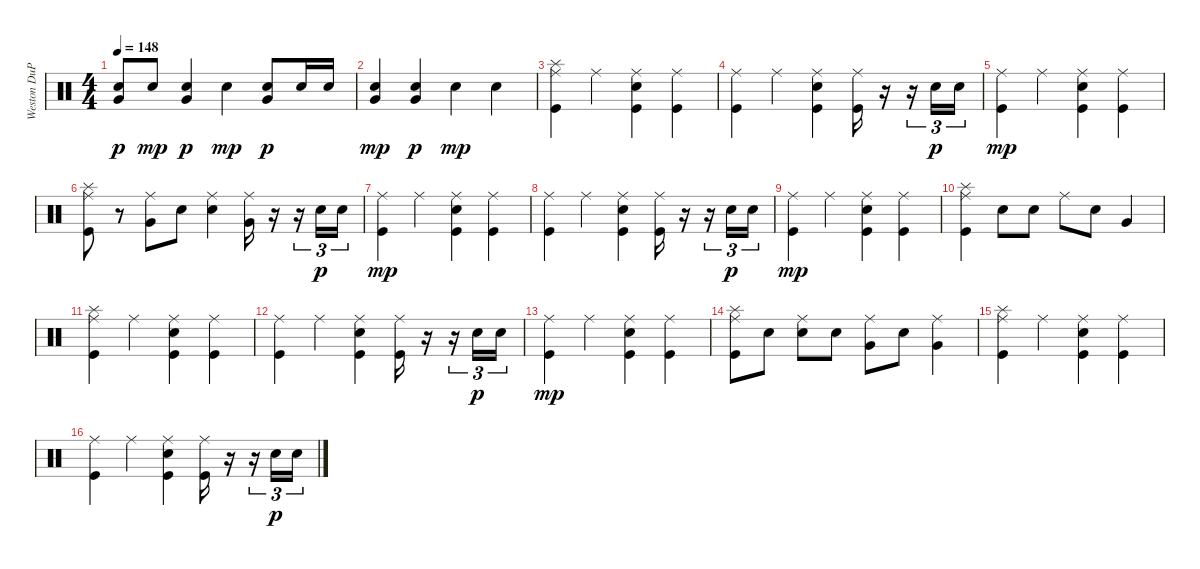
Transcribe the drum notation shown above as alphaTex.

\track ("Weston DuPree" "Weston DuP") {instrument percussion}
\staff {score}
\articulation defaults
\ts (4 4)
\tempo 148
\clef neutral
\ks c
("Snare (hit) 2" "Very Low Tom (hit)").8{dy p} "Electric Snare (hit)".8{dy mp} ("Snare (hit) 2" "Very Low Tom (hit)").4{dy p} "Electric Snare (hit)".4{dy mp} ("Snare (hit) 2" "Very Low Tom (hit)").8{dy p} "Snare (hit) 2".16 "Snare (hit) 2".16 |
("Snare (hit) 2" "Very Low Tom (hit)").4{dy mp} ("Snare (hit) 2" "Very Low Tom (hit)").4{dy p} "Electric Snare (hit)".4{dy mp} "Electric Snare (hit)".4 |
("Splash (hit)" "Kick (hit)" "Ride (middle)").4{volume 16} "Ride (middle)".4 ("Electric Snare (hit)" "Kick (hit)" "Ride (middle)").4 ("Ride (middle)" "Kick (hit)").4 |
("Ride (middle)" "Kick (hit)").4 "Ride (middle)".4 ("Ride (middle)" "Kick (hit)" "Electric Snare (hit)").4 ("Ride (middle)" "Kick (hit)").16 r.16 r.16{tu (3 2)} "Snare (hit) 2".16{tu (3 2) dy p} "Snare (hit) 2".16{tu (3 2)} |
("Kick (hit)" "Ride (middle)").4{dy mp} "Ride (middle)".4 ("Electric Snare (hit)" "Kick (hit)" "Ride (middle)").4 ("Ride (middle)" "Kick (hit)").4 |
("Splash (hit)" "Kick (hit)" "Ride (middle)").8 r.8 ("Ride (middle)" "Very Low Tom (hit)").8 "Electric Snare (hit)".8 ("Ride (middle)" "Electric Snare (hit)").4 ("Ride (middle)" "Very Low Tom (hit)").16 r.16 r.16{tu (3 2)} "Snare (hit) 2".16{tu (3 2) dy p} "Snare (hit) 2".16{tu (3 2)} |
("Kick (hit)" "Ride (middle)").4{dy mp} "Ride (middle)".4 ("Electric Snare (hit)" "Kick (hit)" "Ride (middle)").4 ("Ride (middle)" "Kick (hit)").4 |
("Ride (middle)" "Kick (hit)").4 "Ride (middle)".4 ("Ride (middle)" "Kick (hit)" "Electric Snare (hit)").4 ("Ride (middle)" "Kick (hit)").16 r.16 r.16{tu (3 2)} "Snare (hit) 2".16{tu (3 2) dy p} "Snare (hit) 2".16{tu (3 2)} |
("Kick (hit)" "Ride (middle)").4{dy mp} "Ride (middle)".4 ("Electric Snare (hit)" "Kick (hit)" "Ride (middle)").4 ("Ride (middle)" "Kick (hit)").4 |
("Ride (middle)" "Kick (hit)" "Splash (hit)").4 "Electric Snare (hit)".8 "Electric Snare (hit)".8 "Ride (middle)".8 "Electric Snare (hit)".8 "Very Low Tom (hit)".4 |
("Splash (hit)" "Kick (hit)" "Ride (middle)").4 "Ride (middle)".4 ("Electric Snare (hit)" "Kick (hit)" "Ride (middle)").4 ("Ride (middle)" "Kick (hit)").4 |
("Ride (middle)" "Kick (hit)").4 "Ride (middle)".4 ("Ride (middle)" "Kick (hit)" "Electric Snare (hit)").4 ("Ride (middle)" "Kick (hit)").16 r.16 r.16{tu (3 2)} "Snare (hit) 2".16{tu (3 2) dy p} "Snare (hit) 2".16{tu (3 2)} |
("Kick (hit)" "Ride (middle)").4{dy mp} "Ride (middle)".4 ("Electric Snare (hit)" "Kick (hit)" "Ride (middle)").4 ("Ride (middle)" "Kick (hit)").4 |
("Splash (hit)" "Kick (hit)" "Ride (middle)").8 "Electric Snare (hit)".8 ("Ride (middle)" "Electric Snare (hit)").8 "Electric Snare (hit)".8 ("Ride (middle)" "Very Low Tom (hit)").8 "Electric Snare (hit)".8 ("Ride (middle)" "Very Low Tom (hit)").4 |
("Splash (hit)" "Kick (hit)" "Ride (middle)").4 "Ride (middle)".4 ("Electric Snare (hit)" "Kick (hit)" "Ride (middle)").4 ("Ride (middle)" "Kick (hit)").4 |
("Ride (middle)" "Kick (hit)").4 "Ride (middle)".4 ("Ride (middle)" "Kick (hit)" "Electric Snare (hit)").4 ("Ride (middle)" "Kick (hit)").16 r.16 r.16{tu (3 2)} "Snare (hit) 2".16{tu (3 2) dy p} "Snare (hit) 2".16{tu (3 2)}
